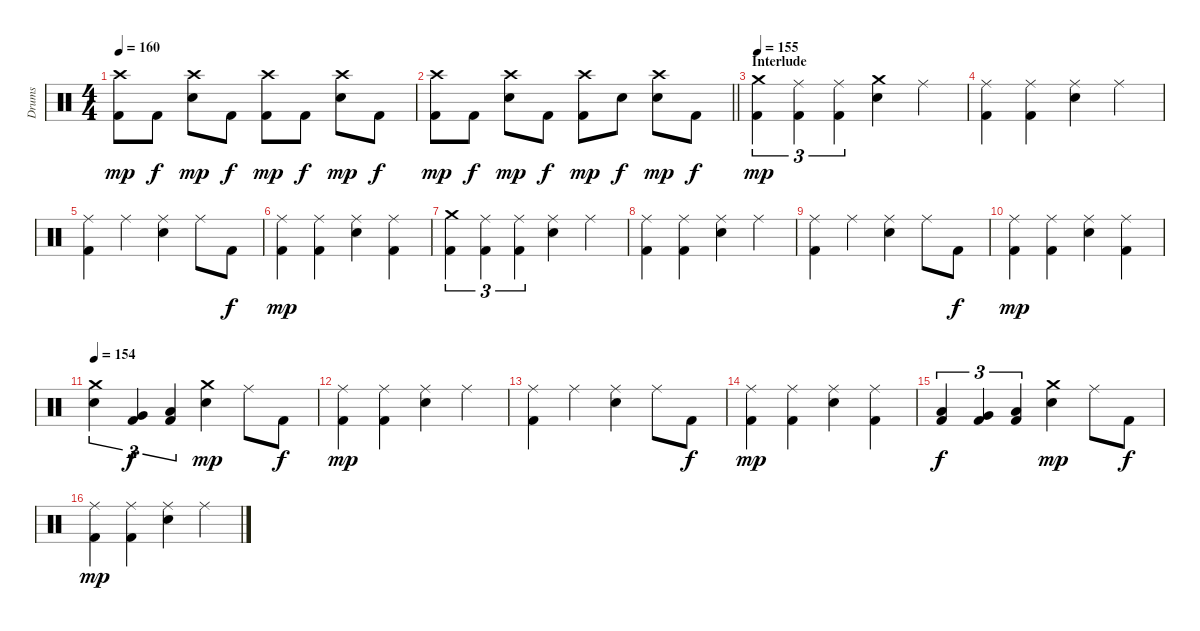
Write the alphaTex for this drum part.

\track ("Drums" "Drums") {instrument percussion}
\staff {score}
\articulation defaults
\ts (4 4)
\tempo 160
\clef neutral
\ks c
("Crash high (hit)" "Kick (hit) 2").8{dy mp} "Kick (hit) 2".8{dy f} ("Crash high (hit)" "Electric Snare (hit)").8{dy mp} "Kick (hit) 2".8{dy f} ("Crash high (hit)" "Kick (hit) 2").8{dy mp} "Kick (hit) 2".8{dy f} ("Crash high (hit)" "Electric Snare (hit)").8{dy mp} "Kick (hit) 2".8{dy f} |
\barLineRight lightlight
("Crash high (hit)" "Kick (hit) 2").8{dy mp} "Kick (hit) 2".8{dy f} ("Crash high (hit)" "Electric Snare (hit)").8{dy mp} "Kick (hit) 2".8{dy f} ("Crash high (hit)" "Kick (hit) 2").8{dy mp} "Electric Snare (hit)".8{dy f} ("Crash high (hit)" "Electric Snare (hit)").8{dy mp} "Kick (hit) 2".8{dy f} |
\section ("" "Interlude")
\tempo 155
("Crash medium (hit)" "Kick (hit) 2").4{tu (3 2) dy mp} ("Ride (middle)" "Kick (hit) 2").4{tu (3 2)} ("Ride (middle)" "Kick (hit) 2").4{tu (3 2)} ("Crash medium (hit)" "Electric Snare (hit)").4 "Ride (middle)".4 |
("Ride (middle)" "Kick (hit) 2").4 ("Ride (middle)" "Kick (hit) 2").4 ("Ride (middle)" "Electric Snare (hit)").4 "Ride (middle)".4 |
("Ride (middle)" "Kick (hit) 2").4 "Ride (middle)".4 ("Ride (middle)" "Electric Snare (hit)").4 "Ride (middle)".8 "Kick (hit) 2".8{dy f} |
("Ride (middle)" "Kick (hit) 2").4{dy mp} ("Ride (middle)" "Kick (hit) 2").4 ("Ride (middle)" "Electric Snare (hit)").4 ("Ride (middle)" "Kick (hit) 2").4 |
("Crash medium (hit)" "Kick (hit) 2").4{tu (3 2)} ("Ride (middle)" "Kick (hit) 2").4{tu (3 2)} ("Ride (middle)" "Kick (hit) 2").4{tu (3 2)} ("Ride (middle)" "Electric Snare (hit)").4 "Ride (middle)".4 |
("Ride (middle)" "Kick (hit) 2").4 ("Ride (middle)" "Kick (hit) 2").4 ("Ride (middle)" "Electric Snare (hit)").4 "Ride (middle)".4 |
("Ride (middle)" "Kick (hit) 2").4 "Ride (middle)".4 ("Ride (middle)" "Electric Snare (hit)").4 "Ride (middle)".8 "Kick (hit) 2".8{dy f} |
("Ride (middle)" "Kick (hit) 2").4{dy mp} ("Ride (middle)" "Kick (hit) 2").4 ("Ride (middle)" "Electric Snare (hit)").4 ("Ride (middle)" "Kick (hit) 2").4 |
\tempo 154
("Crash medium (hit)" "Electric Snare (hit)").4{tu (3 2)} ("Very Low Tom (hit)" "Kick (hit) 2").4{tu (3 2) dy f} ("Low Floor Tom (hit)" "Kick (hit) 2").4{tu (3 2)} ("Crash medium (hit)" "Electric Snare (hit)").4{dy mp} "Ride (middle)".8 "Kick (hit) 2".8{dy f} |
("Ride (middle)" "Kick (hit) 2").4{dy mp} ("Ride (middle)" "Kick (hit) 2").4 ("Ride (middle)" "Electric Snare (hit)").4 "Ride (middle)".4 |
("Ride (middle)" "Kick (hit) 2").4 "Ride (middle)".4 ("Ride (middle)" "Electric Snare (hit)").4 "Ride (middle)".8 "Kick (hit) 2".8{dy f} |
("Ride (middle)" "Kick (hit) 2").4{dy mp} ("Ride (middle)" "Kick (hit) 2").4 ("Ride (middle)" "Electric Snare (hit)").4 ("Ride (middle)" "Kick (hit) 2").4 |
("Low Tom (hit)" "Kick (hit) 2").4{tu (3 2) dy f} ("Very Low Tom (hit)" "Kick (hit) 2").4{tu (3 2)} ("Low Floor Tom (hit)" "Kick (hit) 2").4{tu (3 2)} ("Crash medium (hit)" "Electric Snare (hit)").4{dy mp} "Ride (middle)".8 "Kick (hit) 2".8{dy f} |
("Ride (middle)" "Kick (hit) 2").4{dy mp} ("Ride (middle)" "Kick (hit) 2").4 ("Ride (middle)" "Electric Snare (hit)").4 "Ride (middle)".4
